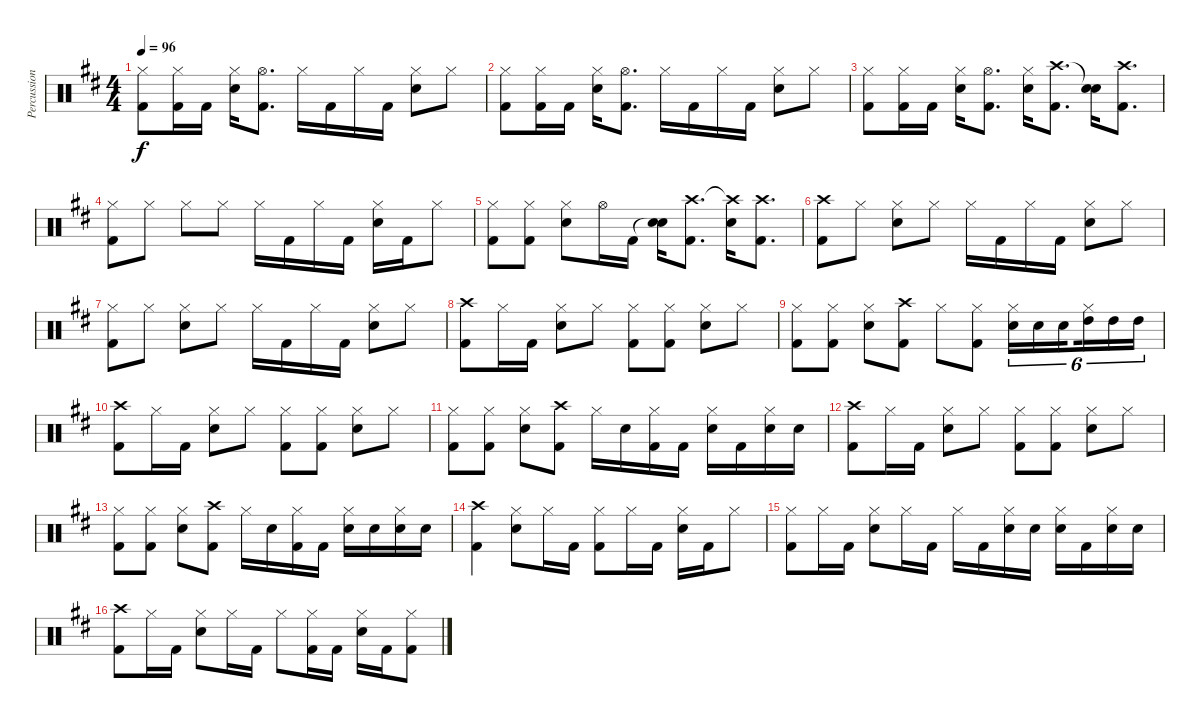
\track ("Percussion" "Percussion") {instrument percussion}
\staff {score}
\articulation defaults
\ts (4 4)
\tempo 96
\clef neutral
\ks d
("Hi-Hat (closed)" "Kick (hit) 2").8{dy f} ("Hi-Hat (closed)" "Kick (hit) 2").16 "Kick (hit) 2".16 ("Hi-Hat (closed)" "Electric Snare (hit)").16 ("Hi-Hat (open)" "Kick (hit) 2").8{d} "Hi-Hat (closed)".16 "Kick (hit) 2".16 "Hi-Hat (closed)".16 "Kick (hit) 2".16 ("Hi-Hat (closed)" "Electric Snare (hit)").8 "Hi-Hat (closed)".8 |
("Hi-Hat (closed)" "Kick (hit) 2").8 ("Hi-Hat (closed)" "Kick (hit) 2").16 "Kick (hit) 2".16 ("Hi-Hat (closed)" "Electric Snare (hit)").16 ("Hi-Hat (open)" "Kick (hit) 2").8{d} "Hi-Hat (closed)".16 "Kick (hit) 2".16 "Hi-Hat (closed)".16 "Kick (hit) 2".16 ("Hi-Hat (closed)" "Electric Snare (hit)").8 "Hi-Hat (closed)".8 |
("Hi-Hat (closed)" "Kick (hit) 2").8 ("Hi-Hat (closed)" "Kick (hit) 2").16 "Kick (hit) 2".16 ("Hi-Hat (closed)" "Electric Snare (hit)").16 ("Hi-Hat (open)" "Kick (hit) 2").8{d} ("Hi-Hat (closed)" "Electric Snare (hit)").16 ("Crash high (hit)" "Kick (hit) 2").8{d} ("Snare (hit)"{t} "Electric Snare (hit)").16 ("Crash high (hit)" "Kick (hit) 2").8{d} |
("Hi-Hat (closed)" "Kick (hit) 2").8 "Hi-Hat (closed)".8 "Hi-Hat (closed)".8 "Hi-Hat (closed)".8 "Hi-Hat (closed)".16 "Kick (hit) 2".16 "Hi-Hat (closed)".16 "Kick (hit) 2".16 ("Hi-Hat (closed)" "Electric Snare (hit)").16 "Kick (hit) 2".16 "Hi-Hat (closed)".8 |
("Hi-Hat (closed)" "Kick (hit) 2").8 ("Hi-Hat (closed)" "Kick (hit) 2").8 ("Hi-Hat (closed)" "Electric Snare (hit)").8 "Hi-Hat (open)".16 "Kick (hit) 2".16 ("Snare (hit)"{t} "Electric Snare (hit)").16 ("Crash high (hit)" "Kick (hit) 2").8{d} ("Crash high (hit)"{t} "Electric Snare (hit)").16 ("Crash high (hit)" "Kick (hit) 2").8{d} |
("Crash high (hit)" "Kick (hit) 2").8 "Hi-Hat (closed)".8 ("Hi-Hat (closed)" "Electric Snare (hit)").8 "Hi-Hat (closed)".8 "Hi-Hat (closed)".16 "Kick (hit) 2".16 "Hi-Hat (closed)".16 "Kick (hit) 2".16 ("Hi-Hat (closed)" "Electric Snare (hit)").8 "Hi-Hat (closed)".8 |
("Hi-Hat (closed)" "Kick (hit) 2").8 "Hi-Hat (closed)".8 ("Hi-Hat (closed)" "Electric Snare (hit)").8 "Hi-Hat (closed)".8 "Hi-Hat (closed)".16 "Kick (hit) 2".16 "Hi-Hat (closed)".16 "Kick (hit) 2".16 ("Hi-Hat (closed)" "Electric Snare (hit)").8 "Hi-Hat (closed)".8 |
("Crash high (hit)" "Kick (hit) 2").8 "Hi-Hat (closed)".16 "Kick (hit) 2".16 ("Hi-Hat (closed)" "Electric Snare (hit)").8 "Hi-Hat (closed)".8 ("Hi-Hat (closed)" "Kick (hit) 2").8 ("Hi-Hat (closed)" "Kick (hit) 2").8 ("Hi-Hat (closed)" "Electric Snare (hit)").8 "Hi-Hat (closed)".8 |
("Hi-Hat (closed)" "Kick (hit) 2").8 ("Hi-Hat (closed)" "Kick (hit) 2").8 ("Hi-Hat (closed)" "Electric Snare (hit)").8 ("Crash high (hit)" "Kick (hit) 2").8 "Hi-Hat (closed)".8 ("Hi-Hat (closed)" "Kick (hit) 2").8 ("Hi-Hat (closed)" "Electric Snare (hit)").16{tu (6 4)} "Electric Snare (hit)".16{tu (6 4)} "Electric Snare (hit)".16{tu (6 4) beam splitsecondary} ("Hi-Hat (closed)" "High Tom (hit)").16{tu (6 4)} "High Tom (hit)".16{tu (6 4)} "High Tom (hit)".16{tu (6 4)} |
("Crash high (hit)" "Kick (hit) 2").8 "Hi-Hat (closed)".16 "Kick (hit) 2".16 ("Hi-Hat (closed)" "Electric Snare (hit)").8 "Hi-Hat (closed)".8 ("Hi-Hat (closed)" "Kick (hit) 2").8 ("Hi-Hat (closed)" "Kick (hit) 2").8 ("Hi-Hat (closed)" "Electric Snare (hit)").8 "Hi-Hat (closed)".8 |
("Hi-Hat (closed)" "Kick (hit) 2").8 ("Hi-Hat (closed)" "Kick (hit) 2").8 ("Hi-Hat (closed)" "Electric Snare (hit)").8 ("Crash high (hit)" "Kick (hit) 2").8 "Hi-Hat (closed)".16 "Electric Snare (hit)".16 ("Hi-Hat (closed)" "Kick (hit) 2").16 "Kick (hit) 2".16 ("Hi-Hat (closed)" "Electric Snare (hit)").16 "Kick (hit) 2".16 ("Hi-Hat (closed)" "Electric Snare (hit)").16 "Electric Snare (hit)".16 |
("Crash high (hit)" "Kick (hit) 2").8 "Hi-Hat (closed)".16 "Kick (hit) 2".16 ("Hi-Hat (closed)" "Electric Snare (hit)").8 "Hi-Hat (closed)".8 ("Hi-Hat (closed)" "Kick (hit) 2").8 ("Hi-Hat (closed)" "Kick (hit) 2").8 ("Hi-Hat (closed)" "Electric Snare (hit)").8 "Hi-Hat (closed)".8 |
("Hi-Hat (closed)" "Kick (hit) 2").8 ("Hi-Hat (closed)" "Kick (hit) 2").8 ("Hi-Hat (closed)" "Electric Snare (hit)").8 ("Crash high (hit)" "Kick (hit) 2").8 "Hi-Hat (closed)".16 "Electric Snare (hit)".16 ("Hi-Hat (closed)" "Kick (hit) 2").16 "Kick (hit) 2".16 ("Hi-Hat (closed)" "Electric Snare (hit)").16 "Electric Snare (hit)".16 ("Hi-Hat (closed)" "Electric Snare (hit)").16 "Electric Snare (hit)".16 |
("Crash high (hit)" "Kick (hit) 2").4 ("Hi-Hat (closed)" "Electric Snare (hit)").8 "Hi-Hat (closed)".16 "Kick (hit) 2".16 ("Hi-Hat (closed)" "Kick (hit) 2").8 "Hi-Hat (closed)".16 "Kick (hit) 2".16 ("Hi-Hat (closed)" "Electric Snare (hit)").16 "Kick (hit) 2".16 "Hi-Hat (closed)".8 |
("Hi-Hat (closed)" "Kick (hit) 2").8 "Hi-Hat (closed)".16 "Kick (hit) 2".16 ("Hi-Hat (closed)" "Electric Snare (hit)").8 "Hi-Hat (closed)".16 "Kick (hit) 2".16 "Hi-Hat (closed)".16 "Kick (hit) 2".16 ("Hi-Hat (closed)" "Electric Snare (hit)").16 "Electric Snare (hit)".16 ("Hi-Hat (closed)" "Electric Snare (hit)").16 "Kick (hit) 2".16 ("Hi-Hat (closed)" "Electric Snare (hit)").16 "Electric Snare (hit)".16 |
("Crash high (hit)" "Kick (hit) 2").8 "Hi-Hat (closed)".16 "Kick (hit) 2".16 ("Hi-Hat (closed)" "Electric Snare (hit)").8 "Hi-Hat (closed)".16 "Kick (hit) 2".16 "Hi-Hat (closed)".8 ("Hi-Hat (closed)" "Kick (hit) 2").16 "Kick (hit) 2".16 ("Hi-Hat (closed)" "Electric Snare (hit)").16 "Kick (hit) 2".16 ("Hi-Hat (closed)" "Kick (hit) 2").8
